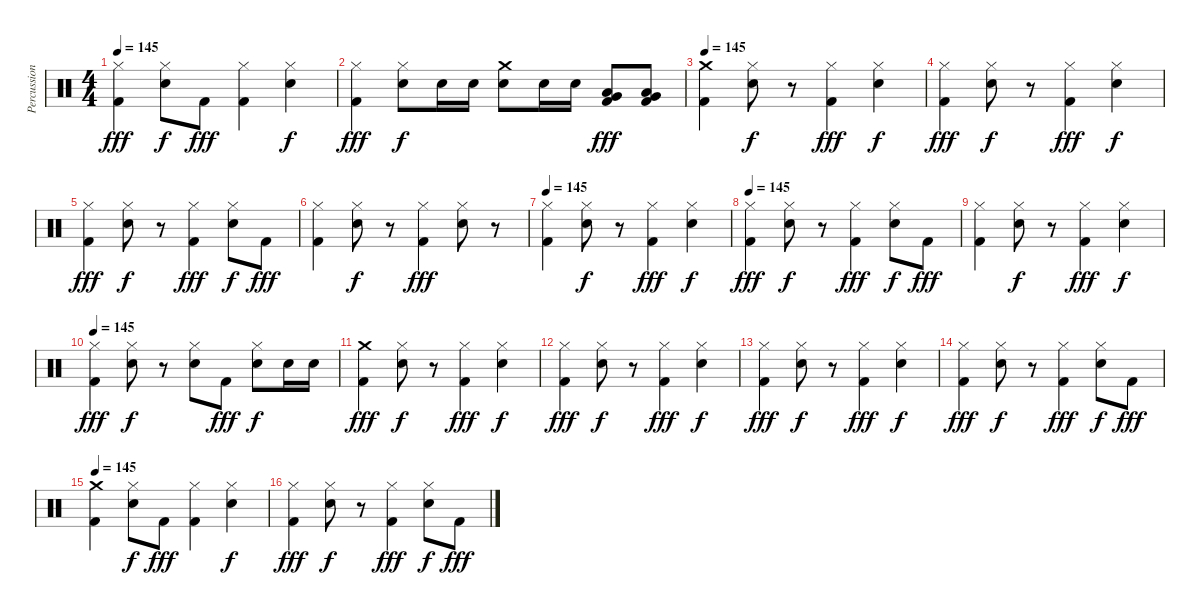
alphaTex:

\track ("Percussion" "Percussion") {instrument percussion}
\staff {score}
\articulation defaults
\ts (4 4)
\tempo 145
\clef neutral
\ks c
("Hi-Hat (closed)" "Kick (hit) 2").4{dy fff} ("Hi-Hat (closed)" "Snare (hit) 2").8{dy f} "Kick (hit) 2".8{dy fff} ("Hi-Hat (closed)" "Kick (hit) 2").4 ("Hi-Hat (closed)" "Snare (hit) 2").4{dy f} |
("Hi-Hat (closed)" "Kick (hit) 2").4{dy fff} ("Hi-Hat (closed)" "Snare (hit) 2").8{dy f} "Snare (hit) 2".16 "Snare (hit) 2".16 ("Crash medium (hit)" "Snare (hit) 2").8 "Snare (hit) 2".16 "Snare (hit) 2".16 ("Low Tom (hit)" "Very Low Tom (hit)" "Kick (hit) 2").8{dy fff} ("Low Tom (hit)" "Very Low Tom (hit)" "Kick (hit) 2").8 |
\tempo 145
("Crash medium (hit)" "Kick (hit) 2").4 ("Hi-Hat (closed)" "Snare (hit) 2").8{dy f} r.8 ("Hi-Hat (closed)" "Kick (hit) 2").4{dy fff} ("Hi-Hat (closed)" "Snare (hit) 2").4{dy f} |
("Hi-Hat (closed)" "Kick (hit) 2").4{dy fff} ("Hi-Hat (closed)" "Snare (hit) 2").8{dy f} r.8 ("Hi-Hat (closed)" "Kick (hit) 2").4{dy fff} ("Hi-Hat (closed)" "Snare (hit) 2").4{dy f} |
("Hi-Hat (closed)" "Kick (hit) 2").4{dy fff} ("Hi-Hat (closed)" "Snare (hit) 2").8{dy f} r.8 ("Hi-Hat (closed)" "Kick (hit) 2").4{dy fff} ("Hi-Hat (closed)" "Snare (hit) 2").8{dy f} "Kick (hit) 2".8{dy fff} |
("Hi-Hat (closed)" "Kick (hit) 2").4 ("Hi-Hat (closed)" "Snare (hit) 2").8{dy f} r.8 ("Hi-Hat (closed)" "Kick (hit) 2").4{dy fff} ("Hi-Hat (closed)" "Snare (hit) 2").8 r.8 |
\tempo 145
("Hi-Hat (closed)" "Kick (hit) 2").4 ("Hi-Hat (closed)" "Snare (hit) 2").8{dy f} r.8 ("Hi-Hat (closed)" "Kick (hit) 2").4{dy fff} ("Hi-Hat (closed)" "Snare (hit) 2").4{dy f} |
\tempo 145
("Hi-Hat (closed)" "Kick (hit) 2").4{dy fff} ("Hi-Hat (closed)" "Snare (hit) 2").8{dy f} r.8 ("Hi-Hat (closed)" "Kick (hit) 2").4{dy fff} ("Hi-Hat (closed)" "Snare (hit) 2").8{dy f} "Kick (hit) 2".8{dy fff} |
("Hi-Hat (closed)" "Kick (hit) 2").4 ("Hi-Hat (closed)" "Snare (hit) 2").8{dy f} r.8 ("Hi-Hat (closed)" "Kick (hit) 2").4{dy fff} ("Hi-Hat (closed)" "Snare (hit) 2").4{dy f} |
\tempo 145
("Hi-Hat (closed)" "Kick (hit) 2").4{dy fff} ("Hi-Hat (closed)" "Snare (hit) 2").8{dy f} r.8 ("Hi-Hat (closed)" "Snare (hit) 2").8 "Kick (hit) 2".8{dy fff} ("Hi-Hat (closed)" "Snare (hit) 2").8{dy f} "Snare (hit) 2".16 "Snare (hit) 2".16 |
("Crash medium (hit)" "Kick (hit) 2").4{dy fff} ("Hi-Hat (closed)" "Snare (hit) 2").8{dy f} r.8 ("Hi-Hat (closed)" "Kick (hit) 2").4{dy fff} ("Hi-Hat (closed)" "Snare (hit) 2").4{dy f} |
("Hi-Hat (closed)" "Kick (hit) 2").4{dy fff} ("Hi-Hat (closed)" "Snare (hit) 2").8{dy f} r.8 ("Hi-Hat (closed)" "Kick (hit) 2").4{dy fff} ("Hi-Hat (closed)" "Snare (hit) 2").4{dy f} |
("Hi-Hat (closed)" "Kick (hit) 2").4{dy fff} ("Hi-Hat (closed)" "Snare (hit) 2").8{dy f} r.8 ("Hi-Hat (closed)" "Kick (hit) 2").4{dy fff} ("Hi-Hat (closed)" "Snare (hit) 2").4{dy f} |
("Hi-Hat (closed)" "Kick (hit) 2").4{dy fff} ("Hi-Hat (closed)" "Snare (hit) 2").8{dy f} r.8 ("Hi-Hat (closed)" "Kick (hit) 2").4{dy fff} ("Hi-Hat (closed)" "Snare (hit) 2").8{dy f} "Kick (hit) 2".8{dy fff} |
\tempo 145
("Crash medium (hit)" "Kick (hit) 2").4 ("Hi-Hat (closed)" "Snare (hit) 2").8{dy f} "Kick (hit) 2".8{dy fff} ("Hi-Hat (closed)" "Kick (hit) 2").4 ("Hi-Hat (closed)" "Snare (hit) 2").4{dy f} |
("Hi-Hat (closed)" "Kick (hit) 2").4{dy fff} ("Hi-Hat (closed)" "Snare (hit) 2").8{dy f} r.8 ("Hi-Hat (closed)" "Kick (hit) 2").4{dy fff} ("Hi-Hat (closed)" "Snare (hit) 2").8{dy f} "Kick (hit) 2".8{dy fff}
